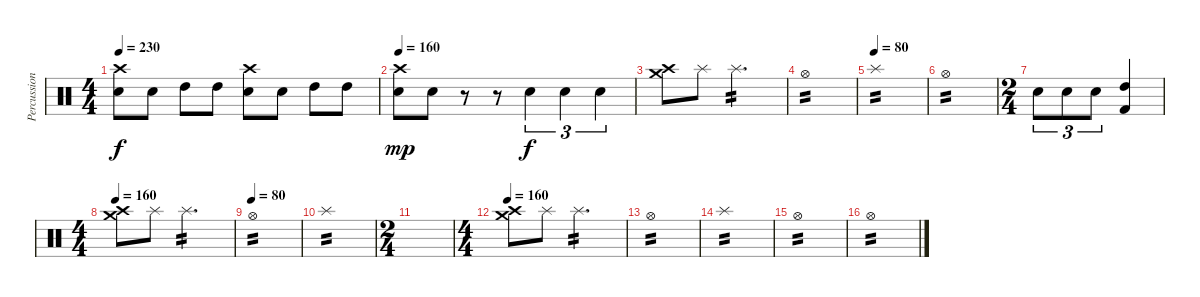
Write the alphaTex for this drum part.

\track ("Percussion" "Percussion") {instrument percussion}
\staff {score}
\articulation defaults
\ts (4 4)
\tempo 230
\clef neutral
\ks c
("Crash high (hit)" "Snare (hit) 2").8{dy f volume 12} "Snare (hit) 2".8 "High Tom (hit)".8 "High Tom (hit)".8 ("Crash high (hit)" "Snare (hit) 2").8 "Snare (hit) 2".8 "High Tom (hit)".8 "High Tom (hit)".8 |
\tempo 160
("Crash high (hit)" "Snare (hit) 2").8{dy mp} "Snare (hit) 2".8 r.8 r.8 "Snare (hit) 2".4{tu (3 2) dy f} "Snare (hit) 2".4{tu (3 2)} "Snare (hit) 2".4{tu (3 2)} |
("Crash high (hit)" "Crash medium (hit)").8 "Splash (hit)".8 "Splash (hit)".2{d tp 2} |
"Hi-Hat (open)".1{tp 2} |
\tempo (80)
"Splash (hit)".1{tp 2} |
"Hi-Hat (open)".1{tp 2} |
\ts (2 4)
"Snare (hit) 2".8{tu (3 2)} "Snare (hit) 2".8{tu (3 2)} "Snare (hit) 2".8{tu (3 2)} ("High Tom (hit)" "Kick (hit) 2").4 |
\ts (4 4)
\tempo 160
("Crash high (hit)" "Crash medium (hit)").8 "Splash (hit)".8 "Splash (hit)".2{d tp 2} |
\tempo (80)
"Hi-Hat (open)".1{tp 2} |
"Splash (hit)".1{tp 2} |
\ts (2 4)
|
\ts (4 4)
\tempo 160
("Crash high (hit)" "Crash medium (hit)").8 "Splash (hit)".8 "Splash (hit)".2{d tp 2} |
"Hi-Hat (open)".1{tp 2} |
"Splash (hit)".1{tp 2} |
"Hi-Hat (open)".1{tp 2} |
"Hi-Hat (open)".1{tp 2}
